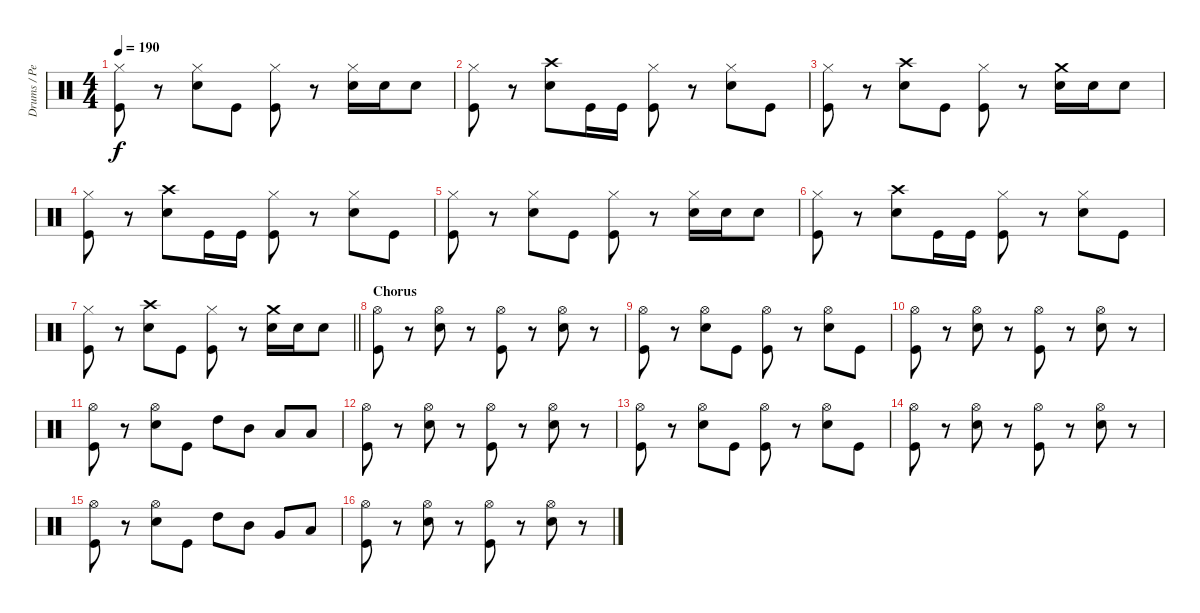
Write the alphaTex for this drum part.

\track ("Drums / Percussion" "Drums / Pe") {instrument percussion}
\staff {score}
\articulation defaults
\ts (4 4)
\tempo 190
\clef neutral
\ks c
("Hi-Hat (closed)" "Kick (hit)").8{dy f} r.8 ("Hi-Hat (closed)" "Electric Snare (hit)").8 "Kick (hit)".8 ("Hi-Hat (closed)" "Kick (hit)").8 r.8 ("Hi-Hat (closed)" "Electric Snare (hit)").16 "Electric Snare (hit)".16 "Electric Snare (hit)".8 |
("Hi-Hat (closed)" "Kick (hit)").8 r.8 ("Crash high (hit)" "Electric Snare (hit)").8 "Kick (hit)".16 "Kick (hit)".16 ("Hi-Hat (closed)" "Kick (hit)").8 r.8 ("Hi-Hat (closed)" "Electric Snare (hit)").8 "Kick (hit)".8 |
("Hi-Hat (closed)" "Kick (hit)").8 r.8 ("Crash high (hit)" "Electric Snare (hit)").8 "Kick (hit)".8 ("Hi-Hat (closed)" "Kick (hit)").8 r.8 ("Crash medium (hit)" "Electric Snare (hit)").16 "Electric Snare (hit)".16 "Electric Snare (hit)".8 |
("Hi-Hat (closed)" "Kick (hit)").8 r.8 ("Crash high (hit)" "Electric Snare (hit)").8 "Kick (hit)".16 "Kick (hit)".16 ("Hi-Hat (closed)" "Kick (hit)").8 r.8 ("Hi-Hat (closed)" "Electric Snare (hit)").8 "Kick (hit)".8 |
("Hi-Hat (closed)" "Kick (hit)").8 r.8 ("Hi-Hat (closed)" "Electric Snare (hit)").8 "Kick (hit)".8 ("Hi-Hat (closed)" "Kick (hit)").8 r.8 ("Hi-Hat (closed)" "Electric Snare (hit)").16 "Electric Snare (hit)".16 "Electric Snare (hit)".8 |
("Hi-Hat (closed)" "Kick (hit)").8 r.8 ("Crash high (hit)" "Electric Snare (hit)").8 "Kick (hit)".16 "Kick (hit)".16 ("Hi-Hat (closed)" "Kick (hit)").8 r.8 ("Hi-Hat (closed)" "Electric Snare (hit)").8 "Kick (hit)".8 |
\barLineRight lightlight
("Hi-Hat (closed)" "Kick (hit)").8 r.8 ("Crash high (hit)" "Electric Snare (hit)").8 "Kick (hit)".8 ("Hi-Hat (closed)" "Kick (hit)").8 r.8 ("Crash medium (hit)" "Electric Snare (hit)").16 "Electric Snare (hit)".16 "Electric Snare (hit)".8 |
\section ("" "Chorus")
("Hi-Hat (open)" "Kick (hit)").8 r.8 ("Hi-Hat (open)" "Electric Snare (hit)").8 r.8 ("Hi-Hat (open)" "Kick (hit)").8 r.8 ("Hi-Hat (open)" "Electric Snare (hit)").8 r.8 |
("Hi-Hat (open)" "Kick (hit)").8 r.8 ("Hi-Hat (open)" "Electric Snare (hit)").8 "Kick (hit)".8 ("Hi-Hat (open)" "Kick (hit)").8 r.8 ("Hi-Hat (open)" "Electric Snare (hit)").8 "Kick (hit)".8 |
("Hi-Hat (open)" "Kick (hit)").8 r.8 ("Hi-Hat (open)" "Electric Snare (hit)").8 r.8 ("Hi-Hat (open)" "Kick (hit)").8 r.8 ("Hi-Hat (open)" "Electric Snare (hit)").8 r.8 |
("Hi-Hat (open)" "Kick (hit)").8 r.8 ("Hi-Hat (open)" "Electric Snare (hit)").8 "Kick (hit)".8 "High Tom (hit)".8 "Mid Tom (hit)".8 "Low Tom (hit)".8 "Low Tom (hit)".8 |
("Hi-Hat (open)" "Kick (hit)").8 r.8 ("Hi-Hat (open)" "Electric Snare (hit)").8 r.8 ("Hi-Hat (open)" "Kick (hit)").8 r.8 ("Hi-Hat (open)" "Electric Snare (hit)").8 r.8 |
("Hi-Hat (open)" "Kick (hit)").8 r.8 ("Hi-Hat (open)" "Electric Snare (hit)").8 "Kick (hit)".8 ("Hi-Hat (open)" "Kick (hit)").8 r.8 ("Hi-Hat (open)" "Electric Snare (hit)").8 "Kick (hit)".8 |
("Hi-Hat (open)" "Kick (hit)").8 r.8 ("Hi-Hat (open)" "Electric Snare (hit)").8 r.8 ("Hi-Hat (open)" "Kick (hit)").8 r.8 ("Hi-Hat (open)" "Electric Snare (hit)").8 r.8 |
("Hi-Hat (open)" "Kick (hit)").8 r.8 ("Hi-Hat (open)" "Electric Snare (hit)").8 "Kick (hit)".8 "High Tom (hit)".8 "Mid Tom (hit)".8 "Very Low Tom (hit)".8 "Low Floor Tom (hit)".8 |
("Hi-Hat (open)" "Kick (hit)").8 r.8 ("Hi-Hat (open)" "Electric Snare (hit)").8 r.8 ("Hi-Hat (open)" "Kick (hit)").8 r.8 ("Hi-Hat (open)" "Electric Snare (hit)").8 r.8
